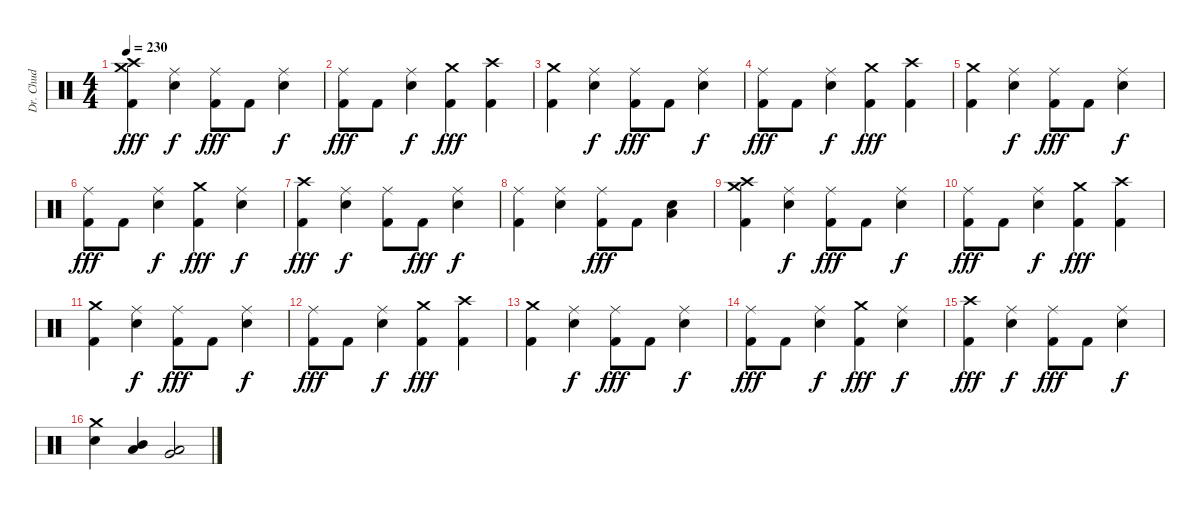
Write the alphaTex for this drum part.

\track ("Dr. Chud" "Dr. Chud") {instrument percussion}
\staff {score}
\articulation defaults
\ts (4 4)
\tempo 230
\clef neutral
\ks c
("Crash high (hit)" "Crash medium (hit)" "Kick (hit) 2").4{dy fff} ("Ride (middle)" "Snare (hit) 2").4{dy f} ("Ride (middle)" "Kick (hit) 2").8{dy fff} "Kick (hit) 2".8 ("Ride (middle)" "Snare (hit) 2").4{dy f} |
("Ride (middle)" "Kick (hit) 2").8{dy fff} "Kick (hit) 2".8 ("Ride (middle)" "Snare (hit) 2").4{dy f} ("Crash medium (hit)" "Kick (hit) 2").4{dy fff} ("Crash high (hit)" "Kick (hit) 2").4 |
("Crash medium (hit)" "Kick (hit) 2").4 ("Ride (middle)" "Snare (hit) 2").4{dy f} ("Ride (middle)" "Kick (hit) 2").8{dy fff} "Kick (hit) 2".8 ("Ride (middle)" "Snare (hit) 2").4{dy f} |
("Ride (middle)" "Kick (hit) 2").8{dy fff} "Kick (hit) 2".8 ("Ride (middle)" "Snare (hit) 2").4{dy f} ("Crash medium (hit)" "Kick (hit) 2").4{dy fff} ("Crash high (hit)" "Kick (hit) 2").4 |
("Crash medium (hit)" "Kick (hit) 2").4 ("Ride (middle)" "Snare (hit) 2").4{dy f} ("Ride (middle)" "Kick (hit) 2").8{dy fff} "Kick (hit) 2".8 ("Ride (middle)" "Snare (hit) 2").4{dy f} |
("Ride (middle)" "Kick (hit) 2").8{dy fff} "Kick (hit) 2".8 ("Ride (middle)" "Snare (hit) 2").4{dy f} ("Crash medium (hit)" "Kick (hit) 2").4{dy fff} ("Ride (middle)" "Snare (hit) 2").4{dy f} |
("Crash high (hit)" "Kick (hit) 2").4{dy fff} ("Ride (middle)" "Snare (hit) 2").4{dy f} ("Ride (middle)" "Kick (hit) 2").8 "Kick (hit) 2".8{dy fff} ("Ride (middle)" "Snare (hit) 2").4{dy f} |
("Ride (middle)" "Kick (hit) 2").4 ("Ride (middle)" "Snare (hit) 2").4 ("Ride (middle)" "Kick (hit) 2").8{dy fff} "Kick (hit) 2".8 ("Low Tom (hit)" "Snare (hit) 2").4 |
("Crash high (hit)" "Crash medium (hit)" "Kick (hit) 2").4 ("Ride (middle)" "Snare (hit) 2").4{dy f} ("Ride (middle)" "Kick (hit) 2").8{dy fff} "Kick (hit) 2".8 ("Ride (middle)" "Snare (hit) 2").4{dy f} |
("Ride (middle)" "Kick (hit) 2").8{dy fff} "Kick (hit) 2".8 ("Ride (middle)" "Snare (hit) 2").4{dy f} ("Crash medium (hit)" "Kick (hit) 2").4{dy fff} ("Crash high (hit)" "Kick (hit) 2").4 |
("Crash medium (hit)" "Kick (hit) 2").4 ("Ride (middle)" "Snare (hit) 2").4{dy f} ("Ride (middle)" "Kick (hit) 2").8{dy fff} "Kick (hit) 2".8 ("Ride (middle)" "Snare (hit) 2").4{dy f} |
("Ride (middle)" "Kick (hit) 2").8{dy fff} "Kick (hit) 2".8 ("Ride (middle)" "Snare (hit) 2").4{dy f} ("Crash medium (hit)" "Kick (hit) 2").4{dy fff} ("Crash high (hit)" "Kick (hit) 2").4 |
("Crash medium (hit)" "Kick (hit) 2").4 ("Ride (middle)" "Snare (hit) 2").4{dy f} ("Ride (middle)" "Kick (hit) 2").8{dy fff} "Kick (hit) 2".8 ("Ride (middle)" "Snare (hit) 2").4{dy f} |
("Ride (middle)" "Kick (hit) 2").8{dy fff} "Kick (hit) 2".8 ("Ride (middle)" "Snare (hit) 2").4{dy f} ("Crash medium (hit)" "Kick (hit) 2").4{dy fff} ("Ride (middle)" "Snare (hit) 2").4{dy f} |
("Crash high (hit)" "Kick (hit) 2").4{dy fff} ("Ride (middle)" "Snare (hit) 2").4{dy f} ("Ride (middle)" "Kick (hit) 2").8{dy fff} "Kick (hit) 2".8 ("Ride (middle)" "Snare (hit) 2").4{dy f} |
("Crash medium (hit)" "Snare (hit) 2").4 ("Mid Tom (hit)" "Low Tom (hit)").4 ("Low Tom (hit)" "Very Low Tom (hit)").2
